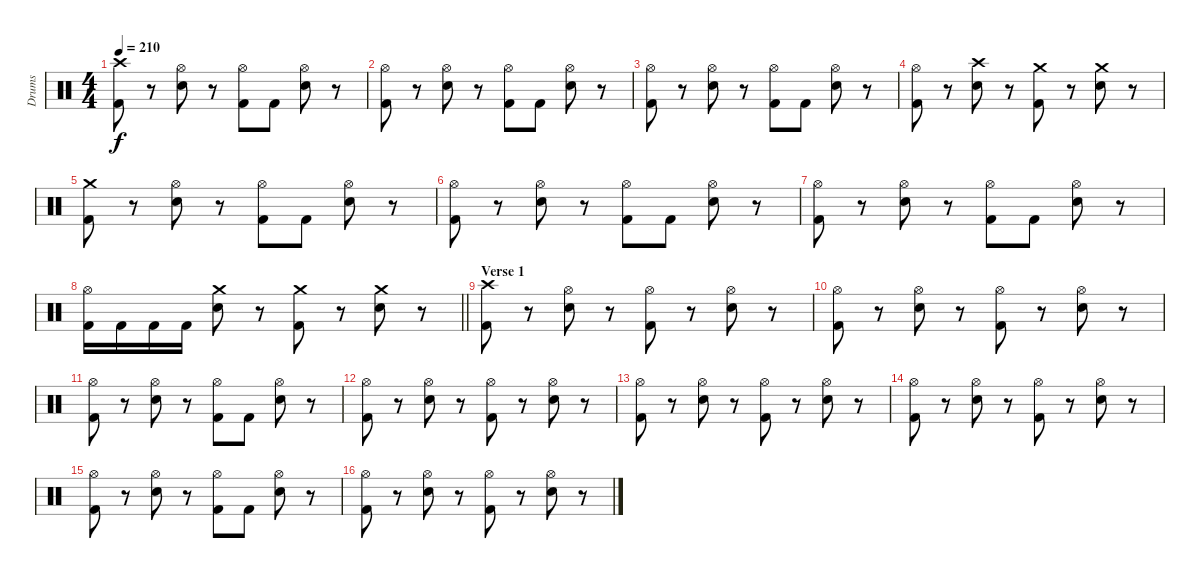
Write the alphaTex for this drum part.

\track ("Drums" "Drums") {instrument percussion}
\staff {score}
\articulation defaults
\ts (4 4)
\tempo 210
\clef neutral
\ks c
("Crash high (hit)" "Kick (hit) 2").8{dy f} r.8 ("Hi-Hat (open)" "Electric Snare (hit)").8 r.8 ("Hi-Hat (open)" "Kick (hit) 2").8 "Kick (hit) 2".8 ("Hi-Hat (open)" "Electric Snare (hit)").8 r.8 |
("Hi-Hat (open)" "Kick (hit) 2").8 r.8 ("Hi-Hat (open)" "Electric Snare (hit)").8 r.8 ("Hi-Hat (open)" "Kick (hit) 2").8 "Kick (hit) 2".8 ("Hi-Hat (open)" "Electric Snare (hit)").8 r.8 |
("Hi-Hat (open)" "Kick (hit) 2").8 r.8 ("Hi-Hat (open)" "Electric Snare (hit)").8 r.8 ("Hi-Hat (open)" "Kick (hit) 2").8 "Kick (hit) 2".8 ("Hi-Hat (open)" "Electric Snare (hit)").8 r.8 |
("Hi-Hat (open)" "Kick (hit) 2").8 r.8 ("Crash high (hit)" "Electric Snare (hit)").8 r.8 ("Crash medium (hit)" "Kick (hit) 2").8 r.8 ("Crash medium (hit)" "Electric Snare (hit)").8 r.8 |
("Crash medium (hit)" "Kick (hit) 2").8 r.8 ("Hi-Hat (open)" "Electric Snare (hit)").8 r.8 ("Hi-Hat (open)" "Kick (hit) 2").8 "Kick (hit) 2".8 ("Hi-Hat (open)" "Electric Snare (hit)").8 r.8 |
("Hi-Hat (open)" "Kick (hit) 2").8 r.8 ("Hi-Hat (open)" "Electric Snare (hit)").8 r.8 ("Hi-Hat (open)" "Kick (hit) 2").8 "Kick (hit) 2".8 ("Hi-Hat (open)" "Electric Snare (hit)").8 r.8 |
("Hi-Hat (open)" "Kick (hit) 2").8 r.8 ("Hi-Hat (open)" "Electric Snare (hit)").8 r.8 ("Hi-Hat (open)" "Kick (hit) 2").8 "Kick (hit) 2".8 ("Hi-Hat (open)" "Electric Snare (hit)").8 r.8 |
\barLineRight lightlight
("Hi-Hat (open)" "Kick (hit) 2").16 "Kick (hit) 2".16 "Kick (hit) 2".16 "Kick (hit) 2".16 ("Crash medium (hit)" "Electric Snare (hit)").8 r.8 ("Crash medium (hit)" "Kick (hit) 2").8 r.8 ("Crash medium (hit)" "Electric Snare (hit)").8 r.8 |
\section ("" "Verse 1")
("Crash high (hit)" "Kick (hit) 2").8 r.8 ("Hi-Hat (open)" "Electric Snare (hit)").8 r.8 ("Hi-Hat (open)" "Kick (hit) 2").8 r.8 ("Hi-Hat (open)" "Electric Snare (hit)").8 r.8 |
("Hi-Hat (open)" "Kick (hit) 2").8 r.8 ("Hi-Hat (open)" "Electric Snare (hit)").8 r.8 ("Hi-Hat (open)" "Kick (hit) 2").8 r.8 ("Hi-Hat (open)" "Electric Snare (hit)").8 r.8 |
("Hi-Hat (open)" "Kick (hit) 2").8 r.8 ("Hi-Hat (open)" "Electric Snare (hit)").8 r.8 ("Hi-Hat (open)" "Kick (hit) 2").8 "Kick (hit) 2".8 ("Hi-Hat (open)" "Electric Snare (hit)").8 r.8 |
("Hi-Hat (open)" "Kick (hit) 2").8 r.8 ("Hi-Hat (open)" "Electric Snare (hit)").8 r.8 ("Hi-Hat (open)" "Kick (hit) 2").8 r.8 ("Hi-Hat (open)" "Electric Snare (hit)").8 r.8 |
("Hi-Hat (open)" "Kick (hit) 2").8 r.8 ("Hi-Hat (open)" "Electric Snare (hit)").8 r.8 ("Hi-Hat (open)" "Kick (hit) 2").8 r.8 ("Hi-Hat (open)" "Electric Snare (hit)").8 r.8 |
("Hi-Hat (open)" "Kick (hit) 2").8 r.8 ("Hi-Hat (open)" "Electric Snare (hit)").8 r.8 ("Hi-Hat (open)" "Kick (hit) 2").8 r.8 ("Hi-Hat (open)" "Electric Snare (hit)").8 r.8 |
("Hi-Hat (open)" "Kick (hit) 2").8 r.8 ("Hi-Hat (open)" "Electric Snare (hit)").8 r.8 ("Hi-Hat (open)" "Kick (hit) 2").8 "Kick (hit) 2".8 ("Hi-Hat (open)" "Electric Snare (hit)").8 r.8 |
("Hi-Hat (open)" "Kick (hit) 2").8 r.8 ("Hi-Hat (open)" "Electric Snare (hit)").8 r.8 ("Hi-Hat (open)" "Kick (hit) 2").8 r.8 ("Hi-Hat (open)" "Electric Snare (hit)").8 r.8
